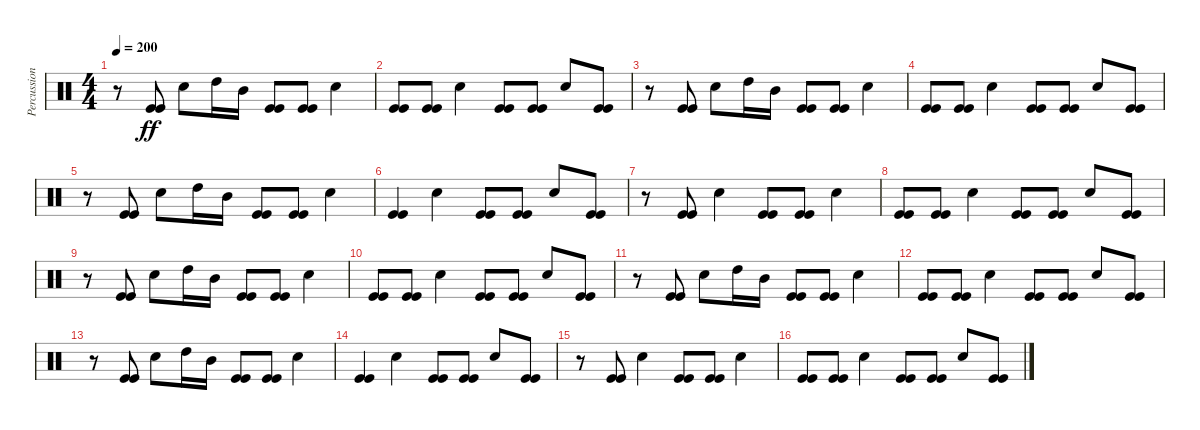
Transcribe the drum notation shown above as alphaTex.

\track ("Percussion" "Percussion") {instrument percussion}
\staff {score}
\articulation defaults
\ts (4 4)
\tempo 200
\clef neutral
\ks c
r.8{dy ff} ("Kick (hit)" "Kick (hit)").8 "Snare (hit) 2".8 "High Tom (hit)".16 "Mid Tom (hit)".16 ("Kick (hit)" "Kick (hit)").8 ("Kick (hit)" "Kick (hit)").8 "Snare (hit) 2".4 |
("Kick (hit)" "Kick (hit)").8 ("Kick (hit)" "Kick (hit)").8 "Snare (hit) 2".4 ("Kick (hit)" "Kick (hit)").8 ("Kick (hit)" "Kick (hit)").8 "Snare (hit) 2".8 ("Kick (hit)" "Kick (hit)").8 |
r.8 ("Kick (hit)" "Kick (hit)").8 "Snare (hit) 2".8 "High Tom (hit)".16 "Mid Tom (hit)".16 ("Kick (hit)" "Kick (hit)").8 ("Kick (hit)" "Kick (hit)").8 "Snare (hit) 2".4 |
("Kick (hit)" "Kick (hit)").8 ("Kick (hit)" "Kick (hit)").8 "Snare (hit) 2".4 ("Kick (hit)" "Kick (hit)").8 ("Kick (hit)" "Kick (hit)").8 "Snare (hit) 2".8 ("Kick (hit)" "Kick (hit)").8 |
r.8 ("Kick (hit)" "Kick (hit)").8 "Snare (hit) 2".8 "High Tom (hit)".16 "Mid Tom (hit)".16 ("Kick (hit)" "Kick (hit)").8 ("Kick (hit)" "Kick (hit)").8 "Snare (hit) 2".4 |
("Kick (hit)" "Kick (hit)").4 "Snare (hit) 2".4 ("Kick (hit)" "Kick (hit)").8 ("Kick (hit)" "Kick (hit)").8 "Snare (hit) 2".8 ("Kick (hit)" "Kick (hit)").8 |
r.8 ("Kick (hit)" "Kick (hit)").8 "Snare (hit) 2".4 ("Kick (hit)" "Kick (hit)").8 ("Kick (hit)" "Kick (hit)").8 "Snare (hit) 2".4 |
("Kick (hit)" "Kick (hit)").8 ("Kick (hit)" "Kick (hit)").8 "Snare (hit) 2".4 ("Kick (hit)" "Kick (hit)").8 ("Kick (hit)" "Kick (hit)").8 "Snare (hit) 2".8 ("Kick (hit)" "Kick (hit)").8 |
r.8 ("Kick (hit)" "Kick (hit)").8 "Snare (hit) 2".8 "High Tom (hit)".16 "Mid Tom (hit)".16 ("Kick (hit)" "Kick (hit)").8 ("Kick (hit)" "Kick (hit)").8 "Snare (hit) 2".4 |
("Kick (hit)" "Kick (hit)").8 ("Kick (hit)" "Kick (hit)").8 "Snare (hit) 2".4 ("Kick (hit)" "Kick (hit)").8 ("Kick (hit)" "Kick (hit)").8 "Snare (hit) 2".8 ("Kick (hit)" "Kick (hit)").8 |
r.8 ("Kick (hit)" "Kick (hit)").8 "Snare (hit) 2".8 "High Tom (hit)".16 "Mid Tom (hit)".16 ("Kick (hit)" "Kick (hit)").8 ("Kick (hit)" "Kick (hit)").8 "Snare (hit) 2".4 |
("Kick (hit)" "Kick (hit)").8 ("Kick (hit)" "Kick (hit)").8 "Snare (hit) 2".4 ("Kick (hit)" "Kick (hit)").8 ("Kick (hit)" "Kick (hit)").8 "Snare (hit) 2".8 ("Kick (hit)" "Kick (hit)").8 |
r.8 ("Kick (hit)" "Kick (hit)").8 "Snare (hit) 2".8 "High Tom (hit)".16 "Mid Tom (hit)".16 ("Kick (hit)" "Kick (hit)").8 ("Kick (hit)" "Kick (hit)").8 "Snare (hit) 2".4 |
("Kick (hit)" "Kick (hit)").4 "Snare (hit) 2".4 ("Kick (hit)" "Kick (hit)").8 ("Kick (hit)" "Kick (hit)").8 "Snare (hit) 2".8 ("Kick (hit)" "Kick (hit)").8 |
r.8 ("Kick (hit)" "Kick (hit)").8 "Snare (hit) 2".4 ("Kick (hit)" "Kick (hit)").8 ("Kick (hit)" "Kick (hit)").8 "Snare (hit) 2".4 |
("Kick (hit)" "Kick (hit)").8 ("Kick (hit)" "Kick (hit)").8 "Snare (hit) 2".4 ("Kick (hit)" "Kick (hit)").8 ("Kick (hit)" "Kick (hit)").8 "Snare (hit) 2".8 ("Kick (hit)" "Kick (hit)").8
